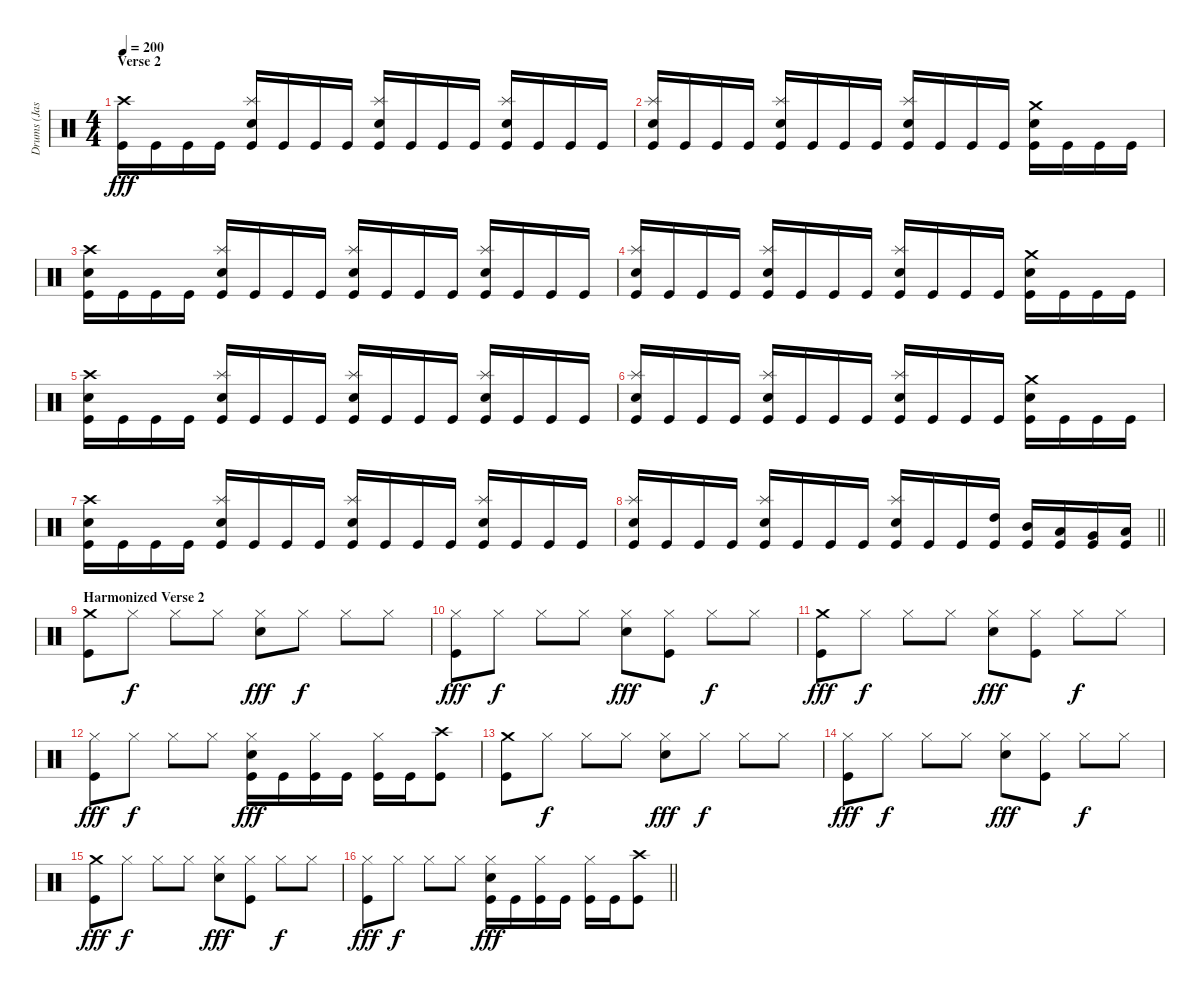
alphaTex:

\track ("Drums (Jason Costa)" "Drums (Jas") {instrument percussion}
\staff {score}
\articulation defaults
\ts (4 4)
\section ("" "Verse 2")
\tempo 200
\clef neutral
\ks c
("Crash high (hit)" "Kick (hit)").16{dy fff} "Kick (hit)".16 "Kick (hit)".16 "Kick (hit)".16 ("Splash (hit)" "Electric Snare (hit)" "Kick (hit)").16 "Kick (hit)".16 "Kick (hit)".16 "Kick (hit)".16 ("Splash (hit)" "Electric Snare (hit)" "Kick (hit)").16 "Kick (hit)".16 "Kick (hit)".16 "Kick (hit)".16 ("Splash (hit)" "Electric Snare (hit)" "Kick (hit)").16 "Kick (hit)".16 "Kick (hit)".16 "Kick (hit)".16 |
("Splash (hit)" "Electric Snare (hit)" "Kick (hit)").16 "Kick (hit)".16 "Kick (hit)".16 "Kick (hit)".16 ("Splash (hit)" "Electric Snare (hit)" "Kick (hit)").16 "Kick (hit)".16 "Kick (hit)".16 "Kick (hit)".16 ("Splash (hit)" "Electric Snare (hit)" "Kick (hit)").16 "Kick (hit)".16 "Kick (hit)".16 "Kick (hit)".16 ("Crash medium (hit)" "Electric Snare (hit)" "Kick (hit)").16 "Kick (hit)".16 "Kick (hit)".16 "Kick (hit)".16 |
("Crash high (hit)" "Electric Snare (hit)" "Kick (hit)").16 "Kick (hit)".16 "Kick (hit)".16 "Kick (hit)".16 ("Splash (hit)" "Electric Snare (hit)" "Kick (hit)").16 "Kick (hit)".16 "Kick (hit)".16 "Kick (hit)".16 ("Splash (hit)" "Electric Snare (hit)" "Kick (hit)").16 "Kick (hit)".16 "Kick (hit)".16 "Kick (hit)".16 ("Splash (hit)" "Electric Snare (hit)" "Kick (hit)").16 "Kick (hit)".16 "Kick (hit)".16 "Kick (hit)".16 |
("Splash (hit)" "Electric Snare (hit)" "Kick (hit)").16 "Kick (hit)".16 "Kick (hit)".16 "Kick (hit)".16 ("Splash (hit)" "Electric Snare (hit)" "Kick (hit)").16 "Kick (hit)".16 "Kick (hit)".16 "Kick (hit)".16 ("Splash (hit)" "Electric Snare (hit)" "Kick (hit)").16 "Kick (hit)".16 "Kick (hit)".16 "Kick (hit)".16 ("Crash medium (hit)" "Electric Snare (hit)" "Kick (hit)").16 "Kick (hit)".16 "Kick (hit)".16 "Kick (hit)".16 |
("Crash high (hit)" "Electric Snare (hit)" "Kick (hit)").16 "Kick (hit)".16 "Kick (hit)".16 "Kick (hit)".16 ("Splash (hit)" "Electric Snare (hit)" "Kick (hit)").16 "Kick (hit)".16 "Kick (hit)".16 "Kick (hit)".16 ("Splash (hit)" "Electric Snare (hit)" "Kick (hit)").16 "Kick (hit)".16 "Kick (hit)".16 "Kick (hit)".16 ("Splash (hit)" "Electric Snare (hit)" "Kick (hit)").16 "Kick (hit)".16 "Kick (hit)".16 "Kick (hit)".16 |
("Splash (hit)" "Electric Snare (hit)" "Kick (hit)").16 "Kick (hit)".16 "Kick (hit)".16 "Kick (hit)".16 ("Splash (hit)" "Electric Snare (hit)" "Kick (hit)").16 "Kick (hit)".16 "Kick (hit)".16 "Kick (hit)".16 ("Splash (hit)" "Electric Snare (hit)" "Kick (hit)").16 "Kick (hit)".16 "Kick (hit)".16 "Kick (hit)".16 ("Crash medium (hit)" "Electric Snare (hit)" "Kick (hit)").16 "Kick (hit)".16 "Kick (hit)".16 "Kick (hit)".16 |
("Crash high (hit)" "Electric Snare (hit)" "Kick (hit)").16 "Kick (hit)".16 "Kick (hit)".16 "Kick (hit)".16 ("Splash (hit)" "Electric Snare (hit)" "Kick (hit)").16 "Kick (hit)".16 "Kick (hit)".16 "Kick (hit)".16 ("Splash (hit)" "Electric Snare (hit)" "Kick (hit)").16 "Kick (hit)".16 "Kick (hit)".16 "Kick (hit)".16 ("Splash (hit)" "Electric Snare (hit)" "Kick (hit)").16 "Kick (hit)".16 "Kick (hit)".16 "Kick (hit)".16 |
\barLineRight lightlight
("Splash (hit)" "Electric Snare (hit)" "Kick (hit)").16 "Kick (hit)".16 "Kick (hit)".16 "Kick (hit)".16 ("Splash (hit)" "Electric Snare (hit)" "Kick (hit)").16 "Kick (hit)".16 "Kick (hit)".16 "Kick (hit)".16 ("Splash (hit)" "Electric Snare (hit)" "Kick (hit)").16 "Kick (hit)".16 "Kick (hit)".16 ("High Tom (hit)" "Kick (hit)").16 ("Mid Tom (hit)" "Kick (hit)").16 ("Low Tom (hit)" "Kick (hit)").16 ("Very Low Tom (hit)" "Kick (hit)").16 ("Low Floor Tom (hit)" "Kick (hit)").16 |
\section ("" "Harmonized Verse 2")
("Crash medium (hit)" "Kick (hit)").8 "Hi-Hat (closed)".8{dy f} "Hi-Hat (closed)".8 "Hi-Hat (closed)".8 ("Hi-Hat (closed)" "Electric Snare (hit)").8{dy fff} "Hi-Hat (closed)".8{dy f} "Hi-Hat (closed)".8 "Hi-Hat (closed)".8 |
("Hi-Hat (closed)" "Kick (hit)").8{dy fff} "Hi-Hat (closed)".8{dy f} "Hi-Hat (closed)".8 "Hi-Hat (closed)".8 ("Hi-Hat (closed)" "Electric Snare (hit)").8{dy fff} ("Hi-Hat (closed)" "Kick (hit)").8 "Hi-Hat (closed)".8{dy f} "Hi-Hat (closed)".8 |
("Crash medium (hit)" "Kick (hit)").8{dy fff} "Hi-Hat (closed)".8{dy f} "Hi-Hat (closed)".8 "Hi-Hat (closed)".8 ("Hi-Hat (closed)" "Electric Snare (hit)").8{dy fff} ("Hi-Hat (closed)" "Kick (hit)").8 "Hi-Hat (closed)".8{dy f} "Hi-Hat (closed)".8 |
("Hi-Hat (closed)" "Kick (hit)").8{dy fff} "Hi-Hat (closed)".8{dy f} "Hi-Hat (closed)".8 "Hi-Hat (closed)".8 ("Hi-Hat (closed)" "Electric Snare (hit)" "Kick (hit)").16{dy fff} "Kick (hit)".16 ("Hi-Hat (closed)" "Kick (hit)").16 "Kick (hit)".16 ("Hi-Hat (closed)" "Kick (hit)").16 "Kick (hit)".16 ("Crash high (hit)" "Kick (hit)").8 |
("Crash medium (hit)" "Kick (hit)").8 "Hi-Hat (closed)".8{dy f} "Hi-Hat (closed)".8 "Hi-Hat (closed)".8 ("Hi-Hat (closed)" "Electric Snare (hit)").8{dy fff} "Hi-Hat (closed)".8{dy f} "Hi-Hat (closed)".8 "Hi-Hat (closed)".8 |
("Hi-Hat (closed)" "Kick (hit)").8{dy fff} "Hi-Hat (closed)".8{dy f} "Hi-Hat (closed)".8 "Hi-Hat (closed)".8 ("Hi-Hat (closed)" "Electric Snare (hit)").8{dy fff} ("Hi-Hat (closed)" "Kick (hit)").8 "Hi-Hat (closed)".8{dy f} "Hi-Hat (closed)".8 |
("Crash medium (hit)" "Kick (hit)").8{dy fff} "Hi-Hat (closed)".8{dy f} "Hi-Hat (closed)".8 "Hi-Hat (closed)".8 ("Hi-Hat (closed)" "Electric Snare (hit)").8{dy fff} ("Hi-Hat (closed)" "Kick (hit)").8 "Hi-Hat (closed)".8{dy f} "Hi-Hat (closed)".8 |
\barLineRight lightlight
("Hi-Hat (closed)" "Kick (hit)").8{dy fff} "Hi-Hat (closed)".8{dy f} "Hi-Hat (closed)".8 "Hi-Hat (closed)".8 ("Hi-Hat (closed)" "Electric Snare (hit)" "Kick (hit)").16{dy fff} "Kick (hit)".16 ("Hi-Hat (closed)" "Kick (hit)").16 "Kick (hit)".16 ("Hi-Hat (closed)" "Kick (hit)").16 "Kick (hit)".16 ("Crash high (hit)" "Kick (hit)").8
